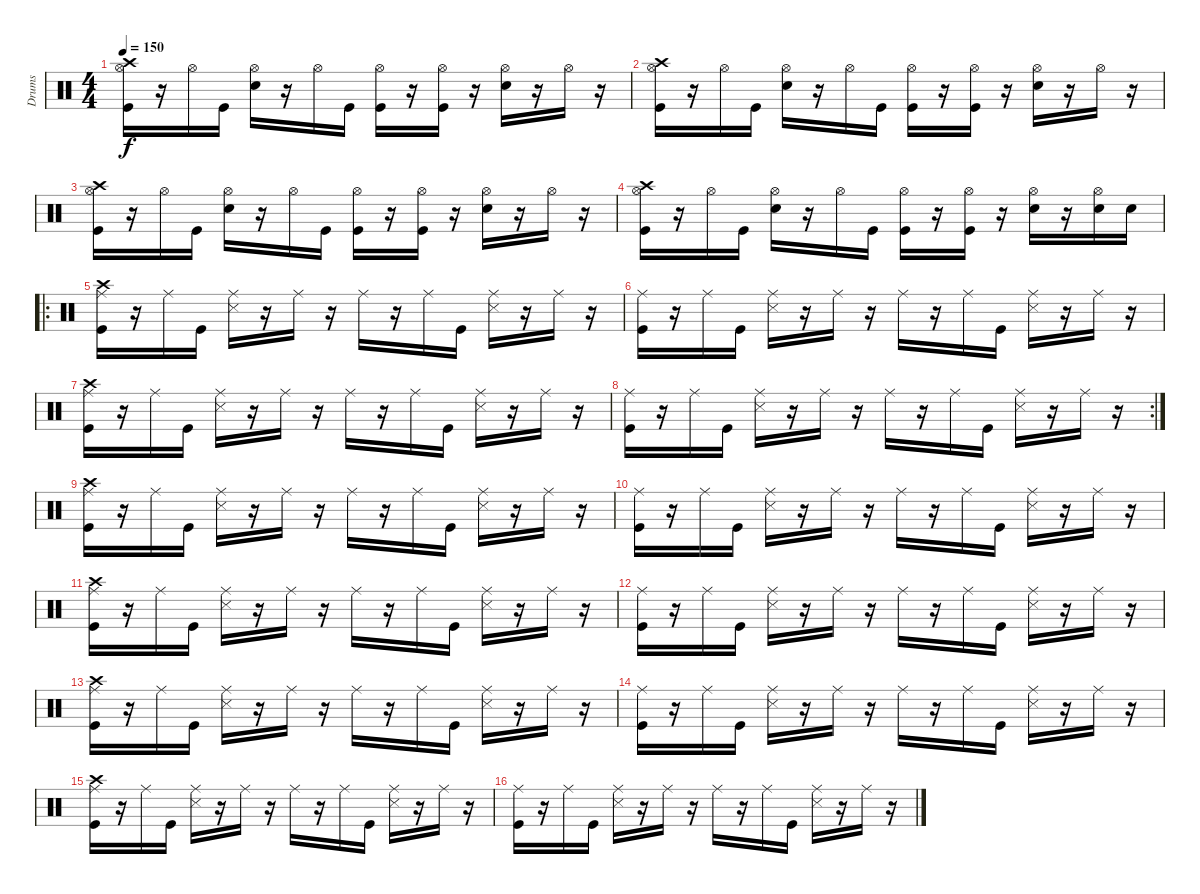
\track ("Drums" "Drums") {instrument percussion}
\staff {score}
\articulation defaults
\ts (4 4)
\tempo 150
\clef neutral
\ks c
("Crash high (hit)" "Hi-Hat (open)" "Kick (hit)").16{dy f} r.16 "Hi-Hat (open)".16 "Kick (hit)".16 ("Hi-Hat (open)" "Electric Snare (hit)").16 r.16 "Hi-Hat (open)".16 "Kick (hit)".16 ("Hi-Hat (open)" "Kick (hit)").16 r.16 ("Hi-Hat (open)" "Kick (hit)").16 r.16 ("Hi-Hat (open)" "Electric Snare (hit)").16 r.16 "Hi-Hat (open)".16 r.16 |
("Crash high (hit)" "Hi-Hat (open)" "Kick (hit)").16 r.16 "Hi-Hat (open)".16 "Kick (hit)".16 ("Hi-Hat (open)" "Electric Snare (hit)").16 r.16 "Hi-Hat (open)".16 "Kick (hit)".16 ("Hi-Hat (open)" "Kick (hit)").16 r.16 ("Hi-Hat (open)" "Kick (hit)").16 r.16 ("Hi-Hat (open)" "Electric Snare (hit)").16 r.16 "Hi-Hat (open)".16 r.16 |
("Crash high (hit)" "Hi-Hat (open)" "Kick (hit)").16 r.16 "Hi-Hat (open)".16 "Kick (hit)".16 ("Hi-Hat (open)" "Electric Snare (hit)").16 r.16 "Hi-Hat (open)".16 "Kick (hit)".16 ("Hi-Hat (open)" "Kick (hit)").16 r.16 ("Hi-Hat (open)" "Kick (hit)").16 r.16 ("Hi-Hat (open)" "Electric Snare (hit)").16 r.16 "Hi-Hat (open)".16 r.16 |
("Crash high (hit)" "Hi-Hat (open)" "Kick (hit)").16 r.16 "Hi-Hat (open)".16 "Kick (hit)".16 ("Hi-Hat (open)" "Electric Snare (hit)").16 r.16 "Hi-Hat (open)".16 "Kick (hit)".16 ("Hi-Hat (open)" "Kick (hit)").16 r.16 ("Hi-Hat (open)" "Kick (hit)").16 r.16 ("Hi-Hat (open)" "Electric Snare (hit)").16 r.16 ("Hi-Hat (open)" "Electric Snare (hit)").16 "Electric Snare (hit)".16 |
\ro
("Crash high (hit)" "Ride (middle)" "Kick (hit)").16 r.16 "Ride (middle)".16 "Kick (hit)".16 ("Ride (middle)" "Snare (side stick) 3").16 r.16 "Ride (middle)".16 r.16 "Ride (middle)".16 r.16 "Ride (middle)".16 "Kick (hit)".16 ("Ride (middle)" "Snare (side stick) 3").16 r.16 "Ride (middle)".16 r.16 |
("Ride (middle)" "Kick (hit)").16 r.16 "Ride (middle)".16 "Kick (hit)".16 ("Ride (middle)" "Snare (side stick) 3").16 r.16 "Ride (middle)".16 r.16 "Ride (middle)".16 r.16 "Ride (middle)".16 "Kick (hit)".16 ("Ride (middle)" "Snare (side stick) 3").16 r.16 "Ride (middle)".16 r.16 |
("Crash high (hit)" "Ride (middle)" "Kick (hit)").16 r.16 "Ride (middle)".16 "Kick (hit)".16 ("Ride (middle)" "Snare (side stick) 3").16 r.16 "Ride (middle)".16 r.16 "Ride (middle)".16 r.16 "Ride (middle)".16 "Kick (hit)".16 ("Ride (middle)" "Snare (side stick) 3").16 r.16 "Ride (middle)".16 r.16 |
\rc 2
("Ride (middle)" "Kick (hit)").16 r.16 "Ride (middle)".16 "Kick (hit)".16 ("Ride (middle)" "Snare (side stick) 3").16 r.16 "Ride (middle)".16 r.16 "Ride (middle)".16 r.16 "Ride (middle)".16 "Kick (hit)".16 ("Ride (middle)" "Snare (side stick) 3").16 r.16 "Ride (middle)".16 r.16 |
("Crash high (hit)" "Ride (middle)" "Kick (hit)").16 r.16 "Ride (middle)".16 "Kick (hit)".16 ("Ride (middle)" "Snare (side stick) 3").16 r.16 "Ride (middle)".16 r.16 "Ride (middle)".16 r.16 "Ride (middle)".16 "Kick (hit)".16 ("Ride (middle)" "Snare (side stick) 3").16 r.16 "Ride (middle)".16 r.16 |
("Ride (middle)" "Kick (hit)").16 r.16 "Ride (middle)".16 "Kick (hit)".16 ("Ride (middle)" "Snare (side stick) 3").16 r.16 "Ride (middle)".16 r.16 "Ride (middle)".16 r.16 "Ride (middle)".16 "Kick (hit)".16 ("Ride (middle)" "Snare (side stick) 3").16 r.16 "Ride (middle)".16 r.16 |
("Crash high (hit)" "Ride (middle)" "Kick (hit)").16 r.16 "Ride (middle)".16 "Kick (hit)".16 ("Ride (middle)" "Snare (side stick) 3").16 r.16 "Ride (middle)".16 r.16 "Ride (middle)".16 r.16 "Ride (middle)".16 "Kick (hit)".16 ("Ride (middle)" "Snare (side stick) 3").16 r.16 "Ride (middle)".16 r.16 |
("Ride (middle)" "Kick (hit)").16 r.16 "Ride (middle)".16 "Kick (hit)".16 ("Ride (middle)" "Snare (side stick) 3").16 r.16 "Ride (middle)".16 r.16 "Ride (middle)".16 r.16 "Ride (middle)".16 "Kick (hit)".16 ("Ride (middle)" "Snare (side stick) 3").16 r.16 "Ride (middle)".16 r.16 |
("Crash high (hit)" "Ride (middle)" "Kick (hit)").16 r.16 "Ride (middle)".16 "Kick (hit)".16 ("Ride (middle)" "Snare (side stick) 3").16 r.16 "Ride (middle)".16 r.16 "Ride (middle)".16 r.16 "Ride (middle)".16 "Kick (hit)".16 ("Ride (middle)" "Snare (side stick) 3").16 r.16 "Ride (middle)".16 r.16 |
("Ride (middle)" "Kick (hit)").16 r.16 "Ride (middle)".16 "Kick (hit)".16 ("Ride (middle)" "Snare (side stick) 3").16 r.16 "Ride (middle)".16 r.16 "Ride (middle)".16 r.16 "Ride (middle)".16 "Kick (hit)".16 ("Ride (middle)" "Snare (side stick) 3").16 r.16 "Ride (middle)".16 r.16 |
("Crash high (hit)" "Ride (middle)" "Kick (hit)").16 r.16 "Ride (middle)".16 "Kick (hit)".16 ("Ride (middle)" "Snare (side stick) 3").16 r.16 "Ride (middle)".16 r.16 "Ride (middle)".16 r.16 "Ride (middle)".16 "Kick (hit)".16 ("Ride (middle)" "Snare (side stick) 3").16 r.16 "Ride (middle)".16 r.16 |
("Ride (middle)" "Kick (hit)").16 r.16 "Ride (middle)".16 "Kick (hit)".16 ("Ride (middle)" "Snare (side stick) 3").16 r.16 "Ride (middle)".16 r.16 "Ride (middle)".16 r.16 "Ride (middle)".16 "Kick (hit)".16 ("Ride (middle)" "Snare (side stick) 3").16 r.16 "Ride (middle)".16 r.16
